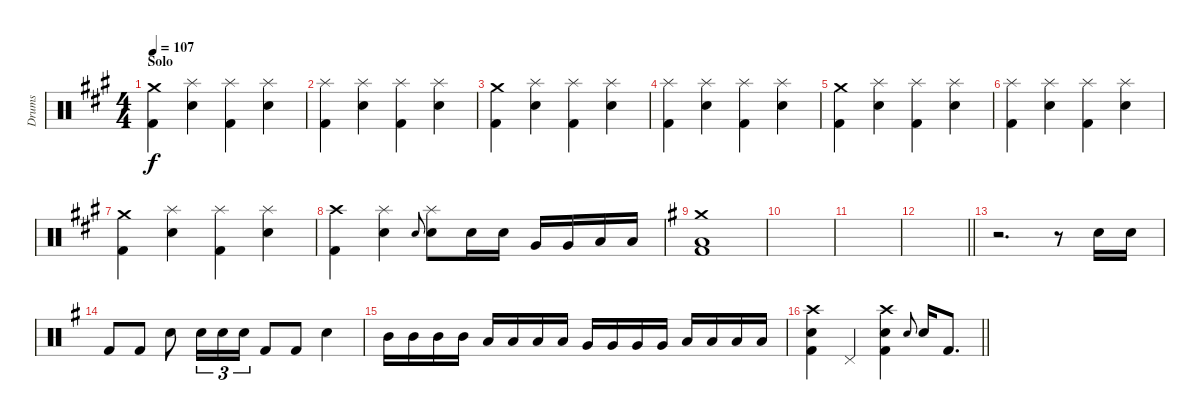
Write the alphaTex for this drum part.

\track ("Drums" "Drums") {instrument percussion}
\staff {score}
\articulation defaults
\ts (4 4)
\section ("" "Solo")
\tempo 107
\clef neutral
\ks f#minor
("Crash medium (hit)" "Kick (hit) 2").4{dy f} ("Splash (hit)" "Snare (hit) 2").4 ("Splash (hit)" "Kick (hit) 2").4 ("Splash (hit)" "Snare (hit) 2").4 |
("Splash (hit)" "Kick (hit) 2").4 ("Splash (hit)" "Snare (hit) 2").4 ("Splash (hit)" "Kick (hit) 2").4 ("Splash (hit)" "Snare (hit) 2").4 |
("Crash medium (hit)" "Kick (hit) 2").4 ("Splash (hit)" "Snare (hit) 2").4 ("Splash (hit)" "Kick (hit) 2").4 ("Splash (hit)" "Snare (hit) 2").4 |
("Splash (hit)" "Kick (hit) 2").4 ("Splash (hit)" "Snare (hit) 2").4 ("Splash (hit)" "Kick (hit) 2").4 ("Splash (hit)" "Snare (hit) 2").4 |
("Crash medium (hit)" "Kick (hit) 2").4 ("Splash (hit)" "Snare (hit) 2").4 ("Splash (hit)" "Kick (hit) 2").4 ("Splash (hit)" "Snare (hit) 2").4 |
("Splash (hit)" "Kick (hit) 2").4 ("Splash (hit)" "Snare (hit) 2").4 ("Splash (hit)" "Kick (hit) 2").4 ("Splash (hit)" "Snare (hit) 2").4 |
("Crash medium (hit)" "Kick (hit) 2").4 ("Splash (hit)" "Snare (hit) 2").4 ("Splash (hit)" "Kick (hit) 2").4 ("Splash (hit)" "Snare (hit) 2").4 |
("Crash high (hit)" "Kick (hit) 2").4 ("Splash (hit)" "Snare (hit) 2").4 "Snare (hit) 2".8{gr onbeat} ("Splash (hit)" "Snare (hit) 2").8 "Snare (hit) 2".16 "Snare (hit) 2".16 "Very Low Tom (hit)".16 "Very Low Tom (hit)".16 "Low Floor Tom (hit)".16 "Low Floor Tom (hit)".16 |
\ks eminor
("Crash medium (hit)" "Low Floor Tom (hit)" "Kick (hit) 2").1 |
|
|
\barLineRight lightlight
|
r.2{d} r.8 "Snare (hit) 2".16 "Snare (hit) 2".16 |
"Kick (hit) 2".8 "Kick (hit) 2".8 "Snare (hit) 2".8 "Snare (hit) 2".16{tu (3 2)} "Snare (hit) 2".16{tu (3 2)} "Snare (hit) 2".16{tu (3 2)} "Kick (hit) 2".8 "Kick (hit) 2".8 "Snare (hit) 2".4 |
"Mid Tom (hit)".16 "Mid Tom (hit)".16 "Mid Tom (hit)".16 "Mid Tom (hit)".16 "Low Tom (hit)".16 "Low Tom (hit)".16 "Low Tom (hit)".16 "Low Tom (hit)".16 "Very Low Tom (hit)".16 "Very Low Tom (hit)".16 "Very Low Tom (hit)".16 "Very Low Tom (hit)".16 "Low Floor Tom (hit)".16 "Low Floor Tom (hit)".16 "Low Floor Tom (hit)".16 "Low Floor Tom (hit)".16 |
\barLineRight lightlight
("Crash high (hit)" "Snare (hit) 2" "Kick (hit) 2").4 "Pedal Hi-Hat (hit)".4 ("Crash high (hit)" "Snare (hit) 2" "Kick (hit) 2").4 "Snare (hit) 2".8{gr onbeat} "Snare (hit) 2".16 "Kick (hit) 2".8{d}
